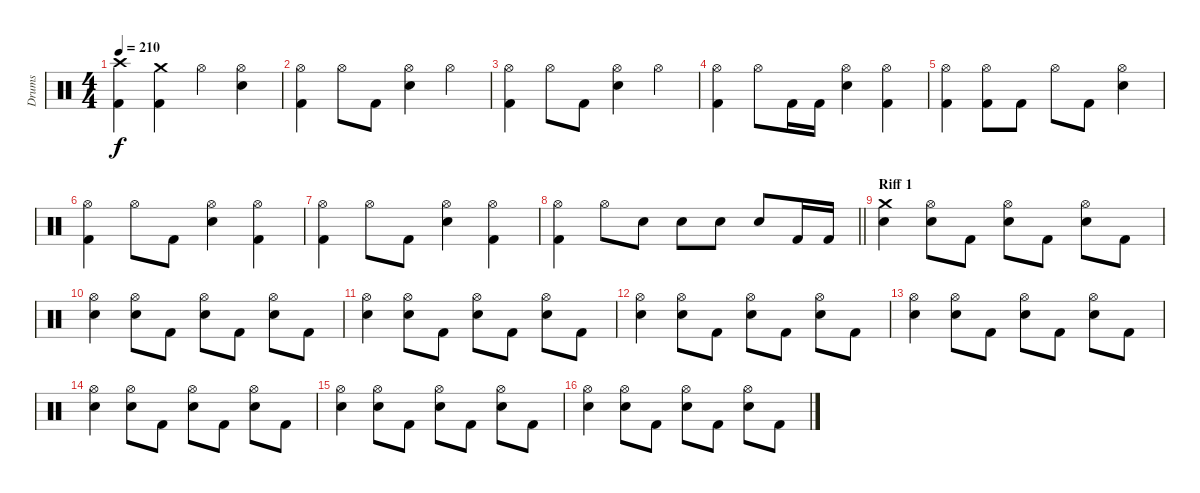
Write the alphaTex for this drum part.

\track ("Drums" "Drums") {instrument percussion}
\staff {score}
\articulation defaults
\ts (4 4)
\tempo 210
\clef neutral
\ks c
("Crash high (hit)" "Kick (hit) 2").4{dy f} ("Crash medium (hit)" "Kick (hit) 2").4 "Hi-Hat (open)".4 ("Electric Snare (hit)" "Hi-Hat (open)").4 |
("Hi-Hat (open)" "Kick (hit) 2").4 "Hi-Hat (open)".8 "Kick (hit) 2".8 ("Hi-Hat (open)" "Electric Snare (hit)").4 "Hi-Hat (open)".4 |
("Hi-Hat (open)" "Kick (hit) 2").4 "Hi-Hat (open)".8 "Kick (hit) 2".8 ("Hi-Hat (open)" "Electric Snare (hit)").4 "Hi-Hat (open)".4 |
("Hi-Hat (open)" "Kick (hit) 2").4 "Hi-Hat (open)".8 "Kick (hit) 2".16 "Kick (hit) 2".16 ("Electric Snare (hit)" "Hi-Hat (open)").4 ("Hi-Hat (open)" "Kick (hit) 2").4 |
("Hi-Hat (open)" "Kick (hit) 2").4 ("Kick (hit) 2" "Hi-Hat (open)").8 "Kick (hit) 2".8 "Hi-Hat (open)".8 "Kick (hit) 2".8 ("Electric Snare (hit)" "Hi-Hat (open)").4 |
("Hi-Hat (open)" "Kick (hit) 2").4 "Hi-Hat (open)".8 "Kick (hit) 2".8 ("Hi-Hat (open)" "Electric Snare (hit)").4 ("Hi-Hat (open)" "Kick (hit) 2").4 |
("Hi-Hat (open)" "Kick (hit) 2").4 "Hi-Hat (open)".8 "Kick (hit) 2".8 ("Hi-Hat (open)" "Electric Snare (hit)").4 ("Hi-Hat (open)" "Kick (hit) 2").4 |
\barLineRight lightlight
("Kick (hit) 2" "Hi-Hat (open)").4 "Hi-Hat (open)".8 "Electric Snare (hit)".8 "Electric Snare (hit)".8 "Electric Snare (hit)".8 "Electric Snare (hit)".8 "Kick (hit) 2".16 "Kick (hit) 2".16 |
\section ("" "Riff 1")
("Electric Snare (hit)" "Crash medium (hit)").4 ("Hi-Hat (open)" "Electric Snare (hit)").8 "Kick (hit) 2".8 ("Hi-Hat (open)" "Electric Snare (hit)").8 "Kick (hit) 2".8 ("Electric Snare (hit)" "Hi-Hat (open)").8 "Kick (hit) 2".8 |
("Electric Snare (hit)" "Hi-Hat (open)").4 ("Hi-Hat (open)" "Electric Snare (hit)").8 "Kick (hit) 2".8 ("Hi-Hat (open)" "Electric Snare (hit)").8 "Kick (hit) 2".8 ("Electric Snare (hit)" "Hi-Hat (open)").8 "Kick (hit) 2".8 |
("Electric Snare (hit)" "Hi-Hat (open)").4 ("Hi-Hat (open)" "Electric Snare (hit)").8 "Kick (hit) 2".8 ("Hi-Hat (open)" "Electric Snare (hit)").8 "Kick (hit) 2".8 ("Electric Snare (hit)" "Hi-Hat (open)").8 "Kick (hit) 2".8 |
("Electric Snare (hit)" "Hi-Hat (open)").4 ("Hi-Hat (open)" "Electric Snare (hit)").8 "Kick (hit) 2".8 ("Hi-Hat (open)" "Electric Snare (hit)").8 "Kick (hit) 2".8 ("Electric Snare (hit)" "Hi-Hat (open)").8 "Kick (hit) 2".8 |
("Electric Snare (hit)" "Hi-Hat (open)").4 ("Hi-Hat (open)" "Electric Snare (hit)").8 "Kick (hit) 2".8 ("Hi-Hat (open)" "Electric Snare (hit)").8 "Kick (hit) 2".8 ("Electric Snare (hit)" "Hi-Hat (open)").8 "Kick (hit) 2".8 |
("Electric Snare (hit)" "Hi-Hat (open)").4 ("Hi-Hat (open)" "Electric Snare (hit)").8 "Kick (hit) 2".8 ("Hi-Hat (open)" "Electric Snare (hit)").8 "Kick (hit) 2".8 ("Electric Snare (hit)" "Hi-Hat (open)").8 "Kick (hit) 2".8 |
("Electric Snare (hit)" "Hi-Hat (open)").4 ("Hi-Hat (open)" "Electric Snare (hit)").8 "Kick (hit) 2".8 ("Hi-Hat (open)" "Electric Snare (hit)").8 "Kick (hit) 2".8 ("Electric Snare (hit)" "Hi-Hat (open)").8 "Kick (hit) 2".8 |
("Electric Snare (hit)" "Hi-Hat (open)").4 ("Hi-Hat (open)" "Electric Snare (hit)").8 "Kick (hit) 2".8 ("Hi-Hat (open)" "Electric Snare (hit)").8 "Kick (hit) 2".8 ("Electric Snare (hit)" "Hi-Hat (open)").8 "Kick (hit) 2".8
